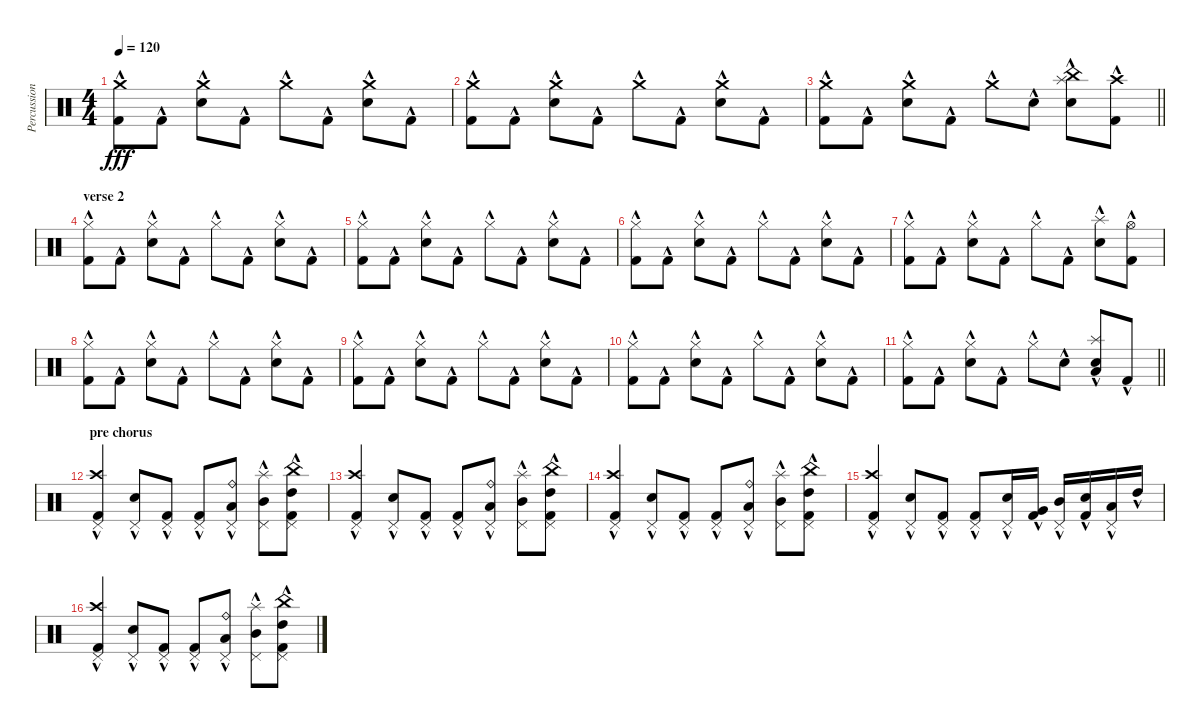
\track ("Percussion" "Percussion") {instrument percussion}
\staff {score}
\articulation defaults
\ts (4 4)
\tempo 120
\clef neutral
\ks c
("Crash medium (hit)"{hac} "Kick (hit) 2"{hac}).8{dy fff} "Kick (hit) 2"{hac}.8 ("Crash medium (hit)"{hac} "Electric Snare (hit)"{hac}).8 "Kick (hit) 2"{hac}.8 "Crash medium (hit)"{hac}.8 "Kick (hit) 2"{hac}.8 ("Crash medium (hit)"{hac} "Electric Snare (hit)"{hac}).8 "Kick (hit) 2"{hac}.8 |
("Crash medium (hit)"{hac} "Kick (hit) 2"{hac}).8 "Kick (hit) 2"{hac}.8 ("Crash medium (hit)"{hac} "Electric Snare (hit)"{hac}).8 "Kick (hit) 2"{hac}.8 "Crash medium (hit)"{hac}.8 "Kick (hit) 2"{hac}.8 ("Crash medium (hit)"{hac} "Electric Snare (hit)"{hac}).8 "Kick (hit) 2"{hac}.8 |
\barLineRight lightlight
("Crash medium (hit)"{hac} "Kick (hit) 2"{hac}).8 "Kick (hit) 2"{hac}.8 ("Crash medium (hit)"{hac} "Electric Snare (hit)"{hac}).8 "Kick (hit) 2"{hac}.8 "Crash medium (hit)"{hac}.8 "Electric Snare (hit)"{hac}.8 ("China (hit)"{hac} "Splash (hit)"{hac} "Electric Snare (hit)"{hac}).8 ("Crash high (hit)"{hac} "Kick (hit) 2"{hac}).8 |
\section ("" "verse 2")
("Hi-Hat (closed)"{hac} "Kick (hit) 2"{hac}).8 "Kick (hit) 2"{hac}.8 ("Hi-Hat (closed)"{hac} "Electric Snare (hit)"{hac}).8 "Kick (hit) 2"{hac}.8 "Hi-Hat (closed)"{hac}.8 "Kick (hit) 2"{hac}.8 ("Hi-Hat (closed)"{hac} "Electric Snare (hit)"{hac}).8 "Kick (hit) 2"{hac}.8 |
("Hi-Hat (closed)"{hac} "Kick (hit) 2"{hac}).8 "Kick (hit) 2"{hac}.8 ("Hi-Hat (closed)"{hac} "Electric Snare (hit)"{hac}).8 "Kick (hit) 2"{hac}.8 "Hi-Hat (closed)"{hac}.8 "Kick (hit) 2"{hac}.8 ("Hi-Hat (closed)"{hac} "Electric Snare (hit)"{hac}).8 "Kick (hit) 2"{hac}.8 |
("Hi-Hat (closed)"{hac} "Kick (hit) 2"{hac}).8 "Kick (hit) 2"{hac}.8 ("Hi-Hat (closed)"{hac} "Electric Snare (hit)"{hac}).8 "Kick (hit) 2"{hac}.8 "Hi-Hat (closed)"{hac}.8 "Kick (hit) 2"{hac}.8 ("Hi-Hat (closed)"{hac} "Electric Snare (hit)"{hac}).8 "Kick (hit) 2"{hac}.8 |
("Hi-Hat (closed)"{hac} "Kick (hit) 2"{hac}).8 "Kick (hit) 2"{hac}.8 ("Hi-Hat (closed)"{hac} "Electric Snare (hit)"{hac}).8 "Kick (hit) 2"{hac}.8 "Hi-Hat (closed)"{hac}.8 "Kick (hit) 2"{hac}.8 ("Splash (hit)"{hac} "Electric Snare (hit)"{hac}).8 ("Hi-Hat (open)"{hac} "Kick (hit) 2"{hac}).8 |
("Hi-Hat (closed)"{hac} "Kick (hit) 2"{hac}).8 "Kick (hit) 2"{hac}.8 ("Hi-Hat (closed)"{hac} "Electric Snare (hit)"{hac}).8 "Kick (hit) 2"{hac}.8 "Hi-Hat (closed)"{hac}.8 "Kick (hit) 2"{hac}.8 ("Hi-Hat (closed)"{hac} "Electric Snare (hit)"{hac}).8 "Kick (hit) 2"{hac}.8 |
("Hi-Hat (closed)"{hac} "Kick (hit) 2"{hac}).8 "Kick (hit) 2"{hac}.8 ("Hi-Hat (closed)"{hac} "Electric Snare (hit)"{hac}).8 "Kick (hit) 2"{hac}.8 "Hi-Hat (closed)"{hac}.8 "Kick (hit) 2"{hac}.8 ("Hi-Hat (closed)"{hac} "Electric Snare (hit)"{hac}).8 "Kick (hit) 2"{hac}.8 |
("Hi-Hat (closed)"{hac} "Kick (hit) 2"{hac}).8 "Kick (hit) 2"{hac}.8 ("Hi-Hat (closed)"{hac} "Electric Snare (hit)"{hac}).8 "Kick (hit) 2"{hac}.8 "Hi-Hat (closed)"{hac}.8 "Kick (hit) 2"{hac}.8 ("Hi-Hat (closed)"{hac} "Electric Snare (hit)"{hac}).8 "Kick (hit) 2"{hac}.8 |
\barLineRight lightlight
("Hi-Hat (closed)"{hac} "Kick (hit) 2"{hac}).8 "Kick (hit) 2"{hac}.8 ("Hi-Hat (closed)"{hac} "Electric Snare (hit)"{hac}).8 "Kick (hit) 2"{hac}.8 "Hi-Hat (closed)"{hac}.8 "Electric Snare (hit)"{hac}.8 ("Splash (hit)"{hac} "Electric Snare (hit)"{hac} "Low Floor Tom (hit)"{hac}).8 "Kick (hit) 2"{hac}.8 |
\section ("" "pre chorus")
("Pedal Hi-Hat (hit)" "Crash high (hit)"{hac} "Kick (hit) 2"{hac}).4 ("Pedal Hi-Hat (hit)" "Electric Snare (hit)"{hac}).8 ("Pedal Hi-Hat (hit)" "Kick (hit) 2"{hac}).8 ("Pedal Hi-Hat (hit)" "Kick (hit) 2"{hac}).8 ("Ride (bell)"{hac} "Low Tom (hit)"{hac} "Pedal Hi-Hat (hit)").8 ("Splash (hit)"{hac} "Mid Tom (hit)"{hac} "Pedal Hi-Hat (hit)").8 ("China (hit)"{hac} "High Tom (hit)"{hac} "Kick (hit) 2"{hac} "Pedal Hi-Hat (hit)").8 |
("Pedal Hi-Hat (hit)" "Crash high (hit)"{hac} "Kick (hit) 2"{hac}).4 ("Pedal Hi-Hat (hit)" "Electric Snare (hit)"{hac}).8 ("Pedal Hi-Hat (hit)" "Kick (hit) 2"{hac}).8 ("Pedal Hi-Hat (hit)" "Kick (hit) 2"{hac}).8 ("Ride (bell)"{hac} "Low Tom (hit)"{hac} "Pedal Hi-Hat (hit)").8 ("Splash (hit)"{hac} "Mid Tom (hit)"{hac} "Pedal Hi-Hat (hit)").8 ("China (hit)"{hac} "High Tom (hit)"{hac} "Kick (hit) 2"{hac} "Pedal Hi-Hat (hit)").8 |
("Pedal Hi-Hat (hit)" "Crash high (hit)"{hac} "Kick (hit) 2"{hac}).4 ("Pedal Hi-Hat (hit)" "Electric Snare (hit)"{hac}).8 ("Pedal Hi-Hat (hit)" "Kick (hit) 2"{hac}).8 ("Pedal Hi-Hat (hit)" "Kick (hit) 2"{hac}).8 ("Ride (bell)"{hac} "Low Tom (hit)"{hac} "Pedal Hi-Hat (hit)").8 ("Splash (hit)"{hac} "Mid Tom (hit)"{hac} "Pedal Hi-Hat (hit)").8 ("China (hit)"{hac} "High Tom (hit)"{hac} "Kick (hit) 2"{hac} "Pedal Hi-Hat (hit)").8 |
("Pedal Hi-Hat (hit)" "Crash high (hit)"{hac} "Kick (hit) 2"{hac}).4 ("Pedal Hi-Hat (hit)" "Electric Snare (hit)"{hac}).8 ("Pedal Hi-Hat (hit)" "Kick (hit) 2"{hac}).8 ("Pedal Hi-Hat (hit)" "Kick (hit) 2"{hac}).8 ("Pedal Hi-Hat (hit)" "Electric Snare (hit)"{hac}).16 ("Very Low Tom (hit)"{hac} "Kick (hit) 2"{hac}).16 ("Pedal Hi-Hat (hit)" "Mid Tom (hit)"{hac}).16 ("Electric Snare (hit)"{hac} "Kick (hit) 2"{hac}).16 ("Pedal Hi-Hat (hit)" "Low Tom (hit)"{hac}).16 "High Tom (hit)"{hac}.16 |
("Pedal Hi-Hat (hit)" "Crash high (hit)"{hac} "Kick (hit) 2"{hac}).4 ("Pedal Hi-Hat (hit)" "Electric Snare (hit)"{hac}).8 ("Pedal Hi-Hat (hit)" "Kick (hit) 2"{hac}).8 ("Pedal Hi-Hat (hit)" "Kick (hit) 2"{hac}).8 ("Ride (bell)"{hac} "Low Tom (hit)"{hac} "Pedal Hi-Hat (hit)").8 ("Splash (hit)"{hac} "Mid Tom (hit)"{hac} "Pedal Hi-Hat (hit)").8 ("China (hit)"{hac} "High Tom (hit)"{hac} "Kick (hit) 2"{hac} "Pedal Hi-Hat (hit)").8
